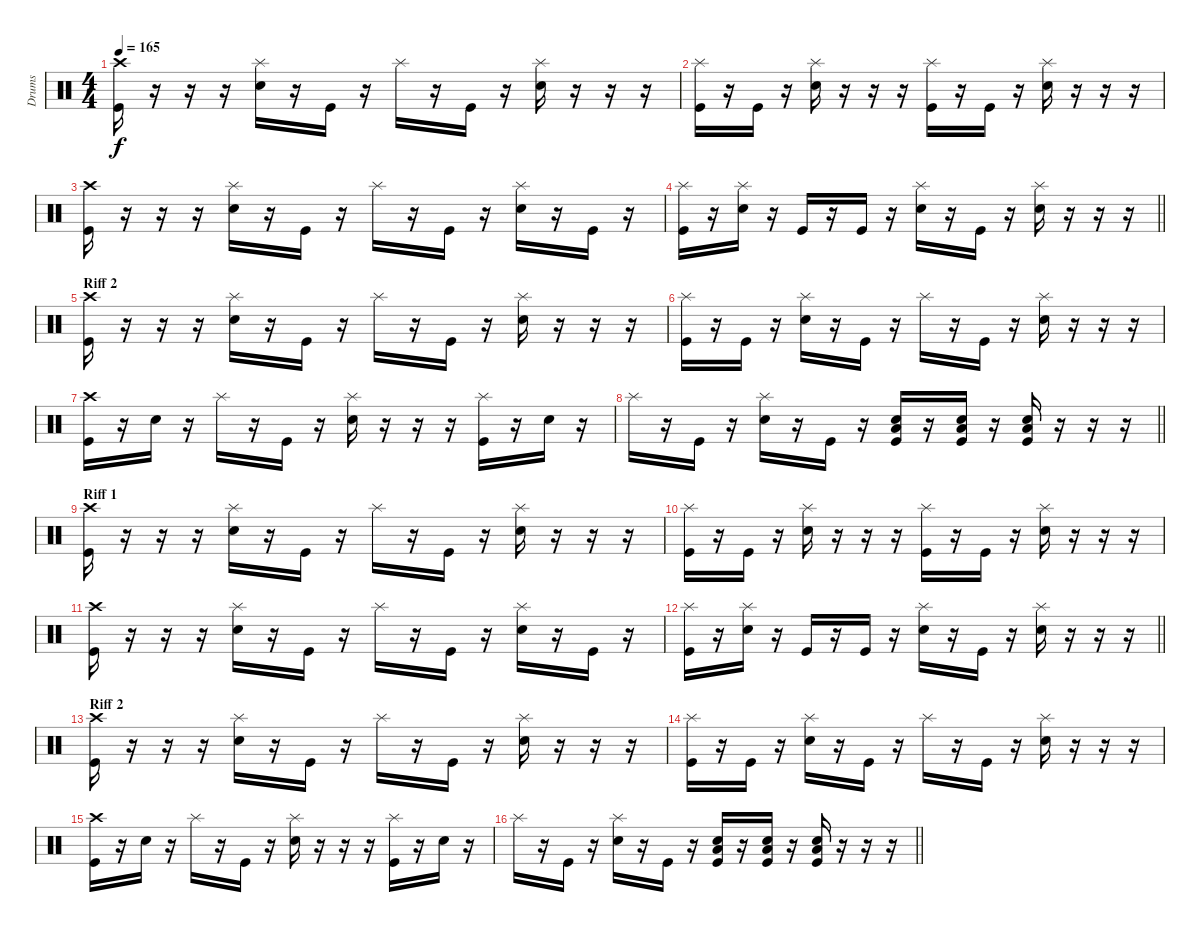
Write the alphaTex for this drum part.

\track ("Drums" "Drums") {instrument percussion}
\staff {score}
\articulation defaults
\ts (4 4)
\tempo 165
\clef neutral
\ks c
("Crash high (hit)" "Kick (hit)").16{dy f} r.16 r.16 r.16 ("Splash (hit)" "Electric Snare (hit)").16 r.16 "Kick (hit)".16 r.16 "Splash (hit)".16 r.16 "Kick (hit)".16 r.16 ("Splash (hit)" "Electric Snare (hit)").16 r.16 r.16 r.16 |
("Splash (hit)" "Kick (hit)").16 r.16 "Kick (hit)".16 r.16 ("Splash (hit)" "Electric Snare (hit)").16 r.16 r.16 r.16 ("Splash (hit)" "Kick (hit)").16 r.16 "Kick (hit)".16 r.16 ("Splash (hit)" "Electric Snare (hit)").16 r.16 r.16 r.16 |
("Crash high (hit)" "Kick (hit)").16 r.16 r.16 r.16 ("Splash (hit)" "Electric Snare (hit)").16 r.16 "Kick (hit)".16 r.16 "Splash (hit)".16 r.16 "Kick (hit)".16 r.16 ("Splash (hit)" "Electric Snare (hit)").16 r.16 "Kick (hit)".16 r.16 |
\barLineRight lightlight
("Splash (hit)" "Kick (hit)").16 r.16 ("Splash (hit)" "Electric Snare (hit)").16 r.16 "Kick (hit)".16 r.16 "Kick (hit)".16 r.16 ("Splash (hit)" "Electric Snare (hit)").16 r.16 "Kick (hit)".16 r.16 ("Splash (hit)" "Electric Snare (hit)").16 r.16 r.16 r.16 |
\section ("" "Riff 2")
("Crash high (hit)" "Kick (hit)").16 r.16 r.16 r.16 ("Splash (hit)" "Electric Snare (hit)").16 r.16 "Kick (hit)".16 r.16 "Splash (hit)".16 r.16 "Kick (hit)".16 r.16 ("Splash (hit)" "Electric Snare (hit)").16 r.16 r.16 r.16 |
("Splash (hit)" "Kick (hit)").16 r.16 "Kick (hit)".16 r.16 ("Splash (hit)" "Electric Snare (hit)").16 r.16 "Kick (hit)".16 r.16 "Splash (hit)".16 r.16 "Kick (hit)".16 r.16 ("Splash (hit)" "Electric Snare (hit)").16 r.16 r.16 r.16 |
("Crash high (hit)" "Kick (hit)").16 r.16 "Electric Snare (hit)".16 r.16 "Splash (hit)".16 r.16 "Kick (hit)".16 r.16 ("Splash (hit)" "Electric Snare (hit)").16 r.16 r.16 r.16 ("Splash (hit)" "Kick (hit)").16 r.16 "Electric Snare (hit)".16 r.16 |
\barLineRight lightlight "Splash (hit)".16
r.16 "Kick (hit)".16 r.16 ("Splash (hit)" "Electric Snare (hit)").16 r.16 "Kick (hit)".16 r.16 ("Low Floor Tom (hit)" "Electric Snare (hit)" "Kick (hit)").16 r.16 ("Low Floor Tom (hit)" "Electric Snare (hit)" "Kick (hit)").16 r.16 ("Low Floor Tom (hit)" "Electric Snare (hit)" "Kick (hit)").16 r.16 r.16 r.16 |
\section ("" "Riff 1")
("Crash high (hit)" "Kick (hit)").16 r.16 r.16 r.16 ("Splash (hit)" "Electric Snare (hit)").16 r.16 "Kick (hit)".16 r.16 "Splash (hit)".16 r.16 "Kick (hit)".16 r.16 ("Splash (hit)" "Electric Snare (hit)").16 r.16 r.16 r.16 |
("Splash (hit)" "Kick (hit)").16 r.16 "Kick (hit)".16 r.16 ("Splash (hit)" "Electric Snare (hit)").16 r.16 r.16 r.16 ("Splash (hit)" "Kick (hit)").16 r.16 "Kick (hit)".16 r.16 ("Splash (hit)" "Electric Snare (hit)").16 r.16 r.16 r.16 |
("Crash high (hit)" "Kick (hit)").16 r.16 r.16 r.16 ("Splash (hit)" "Electric Snare (hit)").16 r.16 "Kick (hit)".16 r.16 "Splash (hit)".16 r.16 "Kick (hit)".16 r.16 ("Splash (hit)" "Electric Snare (hit)").16 r.16 "Kick (hit)".16 r.16 |
\barLineRight lightlight
("Splash (hit)" "Kick (hit)").16 r.16 ("Splash (hit)" "Electric Snare (hit)").16 r.16 "Kick (hit)".16 r.16 "Kick (hit)".16 r.16 ("Splash (hit)" "Electric Snare (hit)").16 r.16 "Kick (hit)".16 r.16 ("Splash (hit)" "Electric Snare (hit)").16 r.16 r.16 r.16 |
\section ("" "Riff 2")
("Crash high (hit)" "Kick (hit)").16 r.16 r.16 r.16 ("Splash (hit)" "Electric Snare (hit)").16 r.16 "Kick (hit)".16 r.16 "Splash (hit)".16 r.16 "Kick (hit)".16 r.16 ("Splash (hit)" "Electric Snare (hit)").16 r.16 r.16 r.16 |
("Splash (hit)" "Kick (hit)").16 r.16 "Kick (hit)".16 r.16 ("Splash (hit)" "Electric Snare (hit)").16 r.16 "Kick (hit)".16 r.16 "Splash (hit)".16 r.16 "Kick (hit)".16 r.16 ("Splash (hit)" "Electric Snare (hit)").16 r.16 r.16 r.16 |
("Crash high (hit)" "Kick (hit)").16 r.16 "Electric Snare (hit)".16 r.16 "Splash (hit)".16 r.16 "Kick (hit)".16 r.16 ("Splash (hit)" "Electric Snare (hit)").16 r.16 r.16 r.16 ("Splash (hit)" "Kick (hit)").16 r.16 "Electric Snare (hit)".16 r.16 |
\barLineRight lightlight "Splash (hit)".16
r.16 "Kick (hit)".16 r.16 ("Splash (hit)" "Electric Snare (hit)").16 r.16 "Kick (hit)".16 r.16 ("Low Floor Tom (hit)" "Electric Snare (hit)" "Kick (hit)").16 r.16 ("Low Floor Tom (hit)" "Electric Snare (hit)" "Kick (hit)").16 r.16 ("Low Floor Tom (hit)" "Electric Snare (hit)" "Kick (hit)").16 r.16 r.16 r.16
